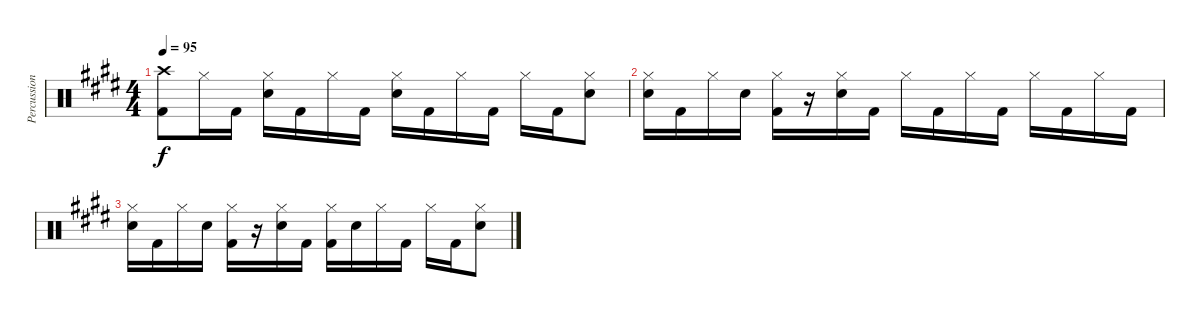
\track ("Percussion" "Percussion") {instrument percussion}
\staff {score}
\articulation defaults
\ts (4 4)
\tempo 95
\clef neutral
\ks e
("Crash high (hit)" "Kick (hit) 2").8{dy f volume 0} "Hi-Hat (closed)".16 "Kick (hit) 2".16 ("Hi-Hat (closed)" "Snare (hit) 2").16 "Kick (hit) 2".16 "Hi-Hat (closed)".16 "Kick (hit) 2".16 ("Hi-Hat (closed)" "Snare (hit) 2").16 "Kick (hit) 2".16 "Hi-Hat (closed)".16 "Kick (hit) 2".16 "Hi-Hat (closed)".16 "Kick (hit) 2".16 ("Hi-Hat (closed)" "Snare (hit) 2").8 |
("Hi-Hat (closed)" "Snare (hit) 2").16 "Kick (hit) 2".16 "Hi-Hat (closed)".16 "Snare (hit) 2".16 ("Hi-Hat (closed)" "Kick (hit) 2").16 r.16 ("Hi-Hat (closed)" "Snare (hit) 2").16 "Kick (hit) 2".16 "Hi-Hat (closed)".16 "Kick (hit) 2".16 "Hi-Hat (closed)".16 "Kick (hit) 2".16 "Hi-Hat (closed)".16 "Kick (hit) 2".16 "Hi-Hat (closed)".16 "Kick (hit) 2".16 |
("Hi-Hat (closed)" "Snare (hit) 2").16 "Kick (hit) 2".16 "Hi-Hat (closed)".16 "Snare (hit) 2".16 ("Hi-Hat (closed)" "Kick (hit) 2").16 r.16 ("Hi-Hat (closed)" "Snare (hit) 2").16 "Kick (hit) 2".16 ("Hi-Hat (closed)" "Kick (hit) 2").16 "Snare (hit) 2".16 "Hi-Hat (closed)".16 "Kick (hit) 2".16 "Hi-Hat (closed)".16 "Kick (hit) 2".16 ("Hi-Hat (closed)" "Snare (hit) 2").8
